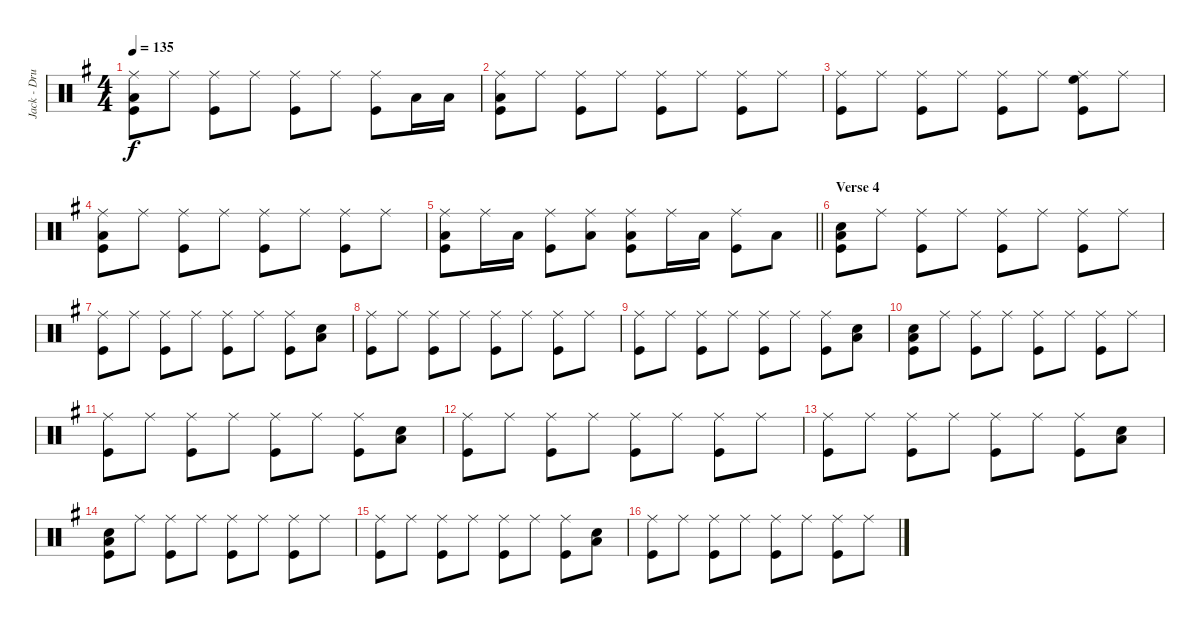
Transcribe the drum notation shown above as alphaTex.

\track ("Jack - Drums" "Jack - Dru") {instrument percussion}
\staff {score}
\articulation defaults
\ts (4 4)
\tempo 135
\clef neutral
\ks g
("Ride (middle)" "Low Floor Tom (hit)" "Kick (hit)").8{dy f} "Ride (middle)".8 ("Ride (middle)" "Kick (hit)").8 "Ride (middle)".8 ("Ride (middle)" "Kick (hit)").8 "Ride (middle)".8 ("Ride (middle)" "Kick (hit)").8 "Low Floor Tom (hit)".16 "Low Floor Tom (hit)".16 |
("Ride (middle)" "Low Floor Tom (hit)" "Kick (hit)").8 "Ride (middle)".8 ("Ride (middle)" "Kick (hit)").8 "Ride (middle)".8 ("Ride (middle)" "Kick (hit)").8 "Ride (middle)".8 ("Ride (middle)" "Kick (hit)").8 "Ride (middle)".8 |
("Ride (middle)" "Kick (hit)").8 "Ride (middle)".8 ("Ride (middle)" "Kick (hit)").8 "Ride (middle)".8 ("Ride (middle)" "Kick (hit)").8 "Ride (middle)".8 ("Ride (middle)" "High Floor Tom (hit)" "Kick (hit)").8 "Ride (middle)".8 |
("Ride (middle)" "Low Tom (hit)" "Kick (hit)").8 "Ride (middle)".8 ("Ride (middle)" "Kick (hit)").8 "Ride (middle)".8 ("Ride (middle)" "Kick (hit)").8 "Ride (middle)".8 ("Ride (middle)" "Kick (hit)").8 "Ride (middle)".8 |
\barLineRight lightlight
("Ride (middle)" "Low Tom (hit)" "Kick (hit)").8 "Ride (middle)".16 "Low Tom (hit)".16 ("Ride (middle)" "Kick (hit)").8 ("Ride (middle)" "Low Floor Tom (hit)").8 ("Ride (middle)" "Low Floor Tom (hit)" "Kick (hit)").8 "Ride (middle)".16 "Low Floor Tom (hit)".16 ("Ride (middle)" "Kick (hit)").8 "Low Floor Tom (hit)".8 |
\section ("" "Verse 4")
("Snare (hit) 2" "Low Tom (hit)" "Kick (hit)").8 "Ride (middle)".8 ("Ride (middle)" "Kick (hit)").8 "Ride (middle)".8 ("Ride (middle)" "Kick (hit)").8 "Ride (middle)".8 ("Ride (middle)" "Kick (hit)").8 "Ride (middle)".8 |
("Ride (middle)" "Kick (hit)").8 "Ride (middle)".8 ("Ride (middle)" "Kick (hit)").8 "Ride (middle)".8 ("Ride (middle)" "Kick (hit)").8 "Ride (middle)".8 ("Ride (middle)" "Kick (hit)").8 ("Snare (hit) 2" "Low Tom (hit)").8 |
("Ride (middle)" "Kick (hit)").8 "Ride (middle)".8 ("Ride (middle)" "Kick (hit)").8 "Ride (middle)".8 ("Ride (middle)" "Kick (hit)").8 "Ride (middle)".8 ("Ride (middle)" "Kick (hit)").8 "Ride (middle)".8 |
("Ride (middle)" "Kick (hit)").8 "Ride (middle)".8 ("Ride (middle)" "Kick (hit)").8 "Ride (middle)".8 ("Ride (middle)" "Kick (hit)").8 "Ride (middle)".8 ("Ride (middle)" "Kick (hit)").8 ("Snare (hit) 2" "Low Tom (hit)").8 |
("Snare (hit) 2" "Low Tom (hit)" "Kick (hit)").8 "Ride (middle)".8 ("Ride (middle)" "Kick (hit)").8 "Ride (middle)".8 ("Ride (middle)" "Kick (hit)").8 "Ride (middle)".8 ("Ride (middle)" "Kick (hit)").8 "Ride (middle)".8 |
("Ride (middle)" "Kick (hit)").8 "Ride (middle)".8 ("Ride (middle)" "Kick (hit)").8 "Ride (middle)".8 ("Ride (middle)" "Kick (hit)").8 "Ride (middle)".8 ("Ride (middle)" "Kick (hit)").8 ("Snare (hit) 2" "Low Tom (hit)").8 |
("Ride (middle)" "Kick (hit)").8 "Ride (middle)".8 ("Ride (middle)" "Kick (hit)").8 "Ride (middle)".8 ("Ride (middle)" "Kick (hit)").8 "Ride (middle)".8 ("Ride (middle)" "Kick (hit)").8 "Ride (middle)".8 |
("Ride (middle)" "Kick (hit)").8 "Ride (middle)".8 ("Ride (middle)" "Kick (hit)").8 "Ride (middle)".8 ("Ride (middle)" "Kick (hit)").8 "Ride (middle)".8 ("Ride (middle)" "Kick (hit)").8 ("Snare (hit) 2" "Low Tom (hit)").8 |
("Snare (hit) 2" "Low Tom (hit)" "Kick (hit)").8 "Ride (middle)".8 ("Ride (middle)" "Kick (hit)").8 "Ride (middle)".8 ("Ride (middle)" "Kick (hit)").8 "Ride (middle)".8 ("Ride (middle)" "Kick (hit)").8 "Ride (middle)".8 |
("Ride (middle)" "Kick (hit)").8 "Ride (middle)".8 ("Ride (middle)" "Kick (hit)").8 "Ride (middle)".8 ("Ride (middle)" "Kick (hit)").8 "Ride (middle)".8 ("Ride (middle)" "Kick (hit)").8 ("Snare (hit) 2" "Low Tom (hit)").8 |
("Ride (middle)" "Kick (hit)").8 "Ride (middle)".8 ("Ride (middle)" "Kick (hit)").8 "Ride (middle)".8 ("Ride (middle)" "Kick (hit)").8 "Ride (middle)".8 ("Ride (middle)" "Kick (hit)").8 "Ride (middle)".8
